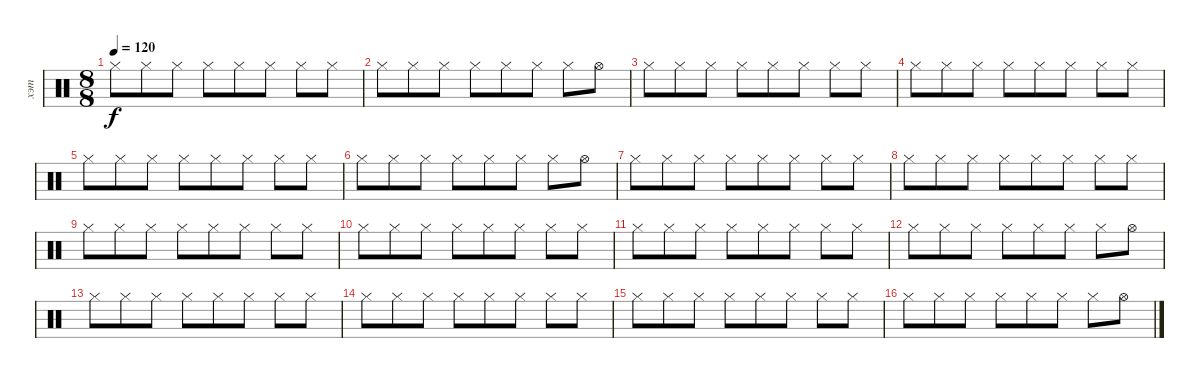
\track ("хэт" "хэт") {instrument percussion}
\staff {score}
\articulation defaults
\ts (8 8)
\tempo 120
\clef neutral
\ks c "Hi-Hat (closed)".8{dy f} "Hi-Hat (closed)".8 "Hi-Hat (closed)".8 "Hi-Hat (closed)".8 "Hi-Hat (closed)".8 "Hi-Hat (closed)".8 "Hi-Hat (closed)".8 "Hi-Hat (closed)".8
|
"Hi-Hat (closed)".8 "Hi-Hat (closed)".8 "Hi-Hat (closed)".8 "Hi-Hat (closed)".8 "Hi-Hat (closed)".8 "Hi-Hat (closed)".8 "Hi-Hat (closed)".8 "Hi-Hat (open)".8 |
"Hi-Hat (closed)".8 "Hi-Hat (closed)".8 "Hi-Hat (closed)".8 "Hi-Hat (closed)".8 "Hi-Hat (closed)".8 "Hi-Hat (closed)".8 "Hi-Hat (closed)".8 "Hi-Hat (closed)".8 |
"Hi-Hat (closed)".8 "Hi-Hat (closed)".8 "Hi-Hat (closed)".8 "Hi-Hat (closed)".8 "Hi-Hat (closed)".8 "Hi-Hat (closed)".8 "Hi-Hat (closed)".8 "Hi-Hat (closed)".8 |
"Hi-Hat (closed)".8 "Hi-Hat (closed)".8 "Hi-Hat (closed)".8 "Hi-Hat (closed)".8 "Hi-Hat (closed)".8 "Hi-Hat (closed)".8 "Hi-Hat (closed)".8 "Hi-Hat (closed)".8 |
"Hi-Hat (closed)".8 "Hi-Hat (closed)".8 "Hi-Hat (closed)".8 "Hi-Hat (closed)".8 "Hi-Hat (closed)".8 "Hi-Hat (closed)".8 "Hi-Hat (closed)".8 "Hi-Hat (open)".8 |
"Hi-Hat (closed)".8 "Hi-Hat (closed)".8 "Hi-Hat (closed)".8 "Hi-Hat (closed)".8 "Hi-Hat (closed)".8 "Hi-Hat (closed)".8 "Hi-Hat (closed)".8 "Hi-Hat (closed)".8 |
"Hi-Hat (closed)".8 "Hi-Hat (closed)".8 "Hi-Hat (closed)".8 "Hi-Hat (closed)".8 "Hi-Hat (closed)".8 "Hi-Hat (closed)".8 "Hi-Hat (closed)".8 "Hi-Hat (closed)".8 |
"Hi-Hat (closed)".8 "Hi-Hat (closed)".8 "Hi-Hat (closed)".8 "Hi-Hat (closed)".8 "Hi-Hat (closed)".8 "Hi-Hat (closed)".8 "Hi-Hat (closed)".8 "Hi-Hat (closed)".8 |
"Hi-Hat (closed)".8 "Hi-Hat (closed)".8 "Hi-Hat (closed)".8 "Hi-Hat (closed)".8 "Hi-Hat (closed)".8 "Hi-Hat (closed)".8 "Hi-Hat (closed)".8 "Hi-Hat (closed)".8 |
"Hi-Hat (closed)".8 "Hi-Hat (closed)".8 "Hi-Hat (closed)".8 "Hi-Hat (closed)".8 "Hi-Hat (closed)".8 "Hi-Hat (closed)".8 "Hi-Hat (closed)".8 "Hi-Hat (closed)".8 |
"Hi-Hat (closed)".8 "Hi-Hat (closed)".8 "Hi-Hat (closed)".8 "Hi-Hat (closed)".8 "Hi-Hat (closed)".8 "Hi-Hat (closed)".8 "Hi-Hat (closed)".8 "Hi-Hat (open)".8 |
"Hi-Hat (closed)".8 "Hi-Hat (closed)".8 "Hi-Hat (closed)".8 "Hi-Hat (closed)".8 "Hi-Hat (closed)".8 "Hi-Hat (closed)".8 "Hi-Hat (closed)".8 "Hi-Hat (closed)".8 |
"Hi-Hat (closed)".8 "Hi-Hat (closed)".8 "Hi-Hat (closed)".8 "Hi-Hat (closed)".8 "Hi-Hat (closed)".8 "Hi-Hat (closed)".8 "Hi-Hat (closed)".8 "Hi-Hat (closed)".8 |
"Hi-Hat (closed)".8 "Hi-Hat (closed)".8 "Hi-Hat (closed)".8 "Hi-Hat (closed)".8 "Hi-Hat (closed)".8 "Hi-Hat (closed)".8 "Hi-Hat (closed)".8 "Hi-Hat (closed)".8 |
"Hi-Hat (closed)".8 "Hi-Hat (closed)".8 "Hi-Hat (closed)".8 "Hi-Hat (closed)".8 "Hi-Hat (closed)".8 "Hi-Hat (closed)".8 "Hi-Hat (closed)".8 "Hi-Hat (open)".8
